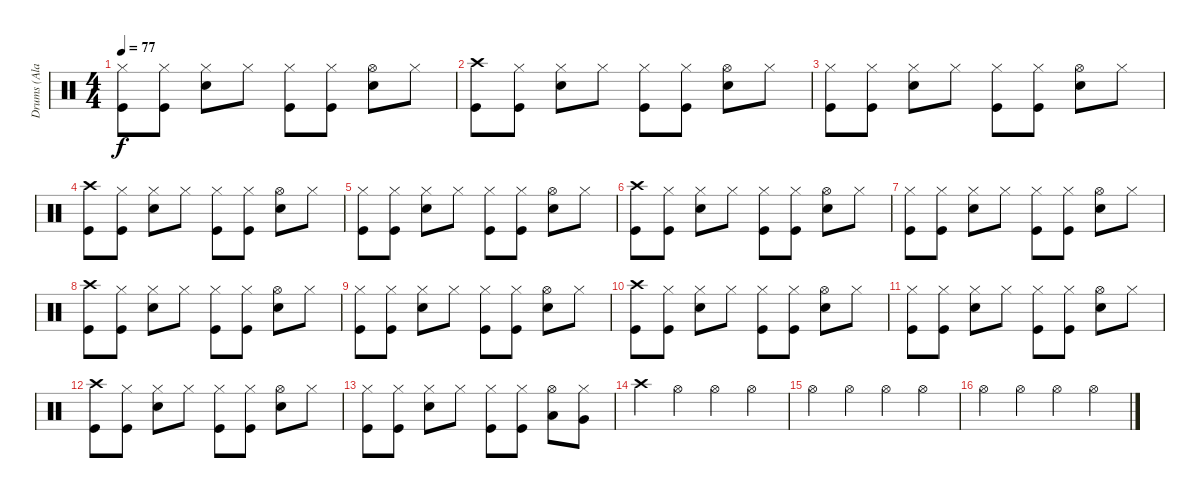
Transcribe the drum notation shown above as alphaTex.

\track ("Drums (Alan White)" "Drums (Ala") {instrument percussion}
\staff {score}
\articulation defaults
\ts (4 4)
\tempo 77
\clef neutral
\ks c
("Hi-Hat (closed)" "Kick (hit)").8{dy f} ("Hi-Hat (closed)" "Kick (hit)").8 ("Hi-Hat (closed)" "Snare (hit) 2").8 "Hi-Hat (closed)".8 ("Hi-Hat (closed)" "Kick (hit)").8 ("Hi-Hat (closed)" "Kick (hit)").8 ("Hi-Hat (open)" "Snare (hit) 2").8 "Hi-Hat (closed)".8 |
("Crash high (hit)" "Kick (hit)").8 ("Hi-Hat (closed)" "Kick (hit)").8 ("Hi-Hat (closed)" "Snare (hit) 2").8 "Hi-Hat (closed)".8 ("Hi-Hat (closed)" "Kick (hit)").8 ("Hi-Hat (closed)" "Kick (hit)").8 ("Hi-Hat (open)" "Snare (hit) 2").8 "Hi-Hat (closed)".8 |
("Hi-Hat (closed)" "Kick (hit)").8 ("Hi-Hat (closed)" "Kick (hit)").8 ("Hi-Hat (closed)" "Snare (hit) 2").8 "Hi-Hat (closed)".8 ("Hi-Hat (closed)" "Kick (hit)").8 ("Hi-Hat (closed)" "Kick (hit)").8 ("Hi-Hat (open)" "Snare (hit) 2").8 "Hi-Hat (closed)".8 |
("Crash high (hit)" "Kick (hit)").8 ("Hi-Hat (closed)" "Kick (hit)").8 ("Hi-Hat (closed)" "Snare (hit) 2").8 "Hi-Hat (closed)".8 ("Hi-Hat (closed)" "Kick (hit)").8 ("Hi-Hat (closed)" "Kick (hit)").8 ("Hi-Hat (open)" "Snare (hit) 2").8 "Hi-Hat (closed)".8 |
("Hi-Hat (closed)" "Kick (hit)").8 ("Hi-Hat (closed)" "Kick (hit)").8 ("Hi-Hat (closed)" "Snare (hit) 2").8 "Hi-Hat (closed)".8 ("Hi-Hat (closed)" "Kick (hit)").8 ("Hi-Hat (closed)" "Kick (hit)").8 ("Hi-Hat (open)" "Snare (hit) 2").8 "Hi-Hat (closed)".8 |
("Crash high (hit)" "Kick (hit)").8 ("Hi-Hat (closed)" "Kick (hit)").8 ("Hi-Hat (closed)" "Snare (hit) 2").8 "Hi-Hat (closed)".8 ("Hi-Hat (closed)" "Kick (hit)").8 ("Hi-Hat (closed)" "Kick (hit)").8 ("Hi-Hat (open)" "Snare (hit) 2").8 "Hi-Hat (closed)".8 |
("Hi-Hat (closed)" "Kick (hit)").8 ("Hi-Hat (closed)" "Kick (hit)").8 ("Hi-Hat (closed)" "Snare (hit) 2").8 "Hi-Hat (closed)".8 ("Hi-Hat (closed)" "Kick (hit)").8 ("Hi-Hat (closed)" "Kick (hit)").8 ("Hi-Hat (open)" "Snare (hit) 2").8 "Hi-Hat (closed)".8 |
("Crash high (hit)" "Kick (hit)").8 ("Hi-Hat (closed)" "Kick (hit)").8 ("Hi-Hat (closed)" "Snare (hit) 2").8 "Hi-Hat (closed)".8 ("Hi-Hat (closed)" "Kick (hit)").8 ("Hi-Hat (closed)" "Kick (hit)").8 ("Hi-Hat (open)" "Snare (hit) 2").8 "Hi-Hat (closed)".8 |
("Hi-Hat (closed)" "Kick (hit)").8 ("Hi-Hat (closed)" "Kick (hit)").8 ("Hi-Hat (closed)" "Snare (hit) 2").8 "Hi-Hat (closed)".8 ("Hi-Hat (closed)" "Kick (hit)").8 ("Hi-Hat (closed)" "Kick (hit)").8 ("Hi-Hat (open)" "Snare (hit) 2").8 "Hi-Hat (closed)".8 |
("Crash high (hit)" "Kick (hit)").8 ("Hi-Hat (closed)" "Kick (hit)").8 ("Hi-Hat (closed)" "Snare (hit) 2").8 "Hi-Hat (closed)".8 ("Hi-Hat (closed)" "Kick (hit)").8 ("Hi-Hat (closed)" "Kick (hit)").8 ("Hi-Hat (open)" "Snare (hit) 2").8 "Hi-Hat (closed)".8 |
("Hi-Hat (closed)" "Kick (hit)").8 ("Hi-Hat (closed)" "Kick (hit)").8 ("Hi-Hat (closed)" "Snare (hit) 2").8 "Hi-Hat (closed)".8 ("Hi-Hat (closed)" "Kick (hit)").8 ("Hi-Hat (closed)" "Kick (hit)").8 ("Hi-Hat (open)" "Snare (hit) 2").8 "Hi-Hat (closed)".8 |
("Crash high (hit)" "Kick (hit)").8 ("Hi-Hat (closed)" "Kick (hit)").8 ("Hi-Hat (closed)" "Snare (hit) 2").8 "Hi-Hat (closed)".8 ("Hi-Hat (closed)" "Kick (hit)").8 ("Hi-Hat (closed)" "Kick (hit)").8 ("Hi-Hat (open)" "Snare (hit) 2").8 "Hi-Hat (closed)".8 |
("Hi-Hat (closed)" "Kick (hit)").8 ("Hi-Hat (closed)" "Kick (hit)").8 ("Hi-Hat (closed)" "Snare (hit) 2").8 "Hi-Hat (closed)".8 ("Hi-Hat (closed)" "Kick (hit)").8 ("Hi-Hat (closed)" "Kick (hit)").8 ("Hi-Hat (open)" "Low Tom (hit)").8 ("Hi-Hat (closed)" "Very Low Tom (hit)").8 |
"Crash high (hit)".4 "Hi-Hat (open)".4 "Hi-Hat (open)".4 "Hi-Hat (open)".4 |
"Hi-Hat (open)".4 "Hi-Hat (open)".4 "Hi-Hat (open)".4 "Hi-Hat (open)".4 |
"Hi-Hat (open)".4 "Hi-Hat (open)".4 "Hi-Hat (open)".4 "Hi-Hat (open)".4
